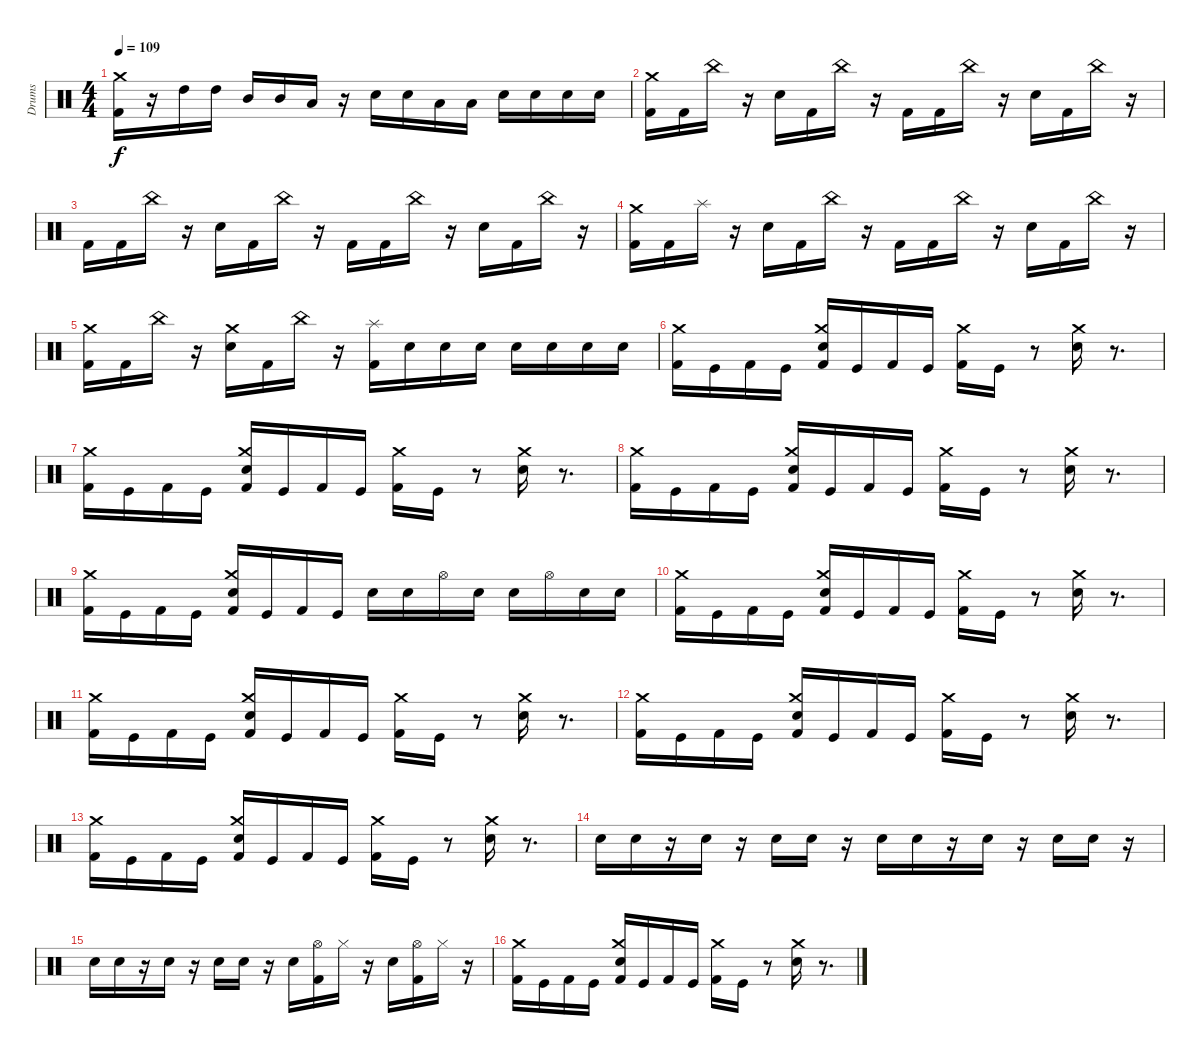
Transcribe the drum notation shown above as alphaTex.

\track ("Drums" "Drums") {instrument percussion}
\staff {score}
\articulation defaults
\ts (4 4)
\tempo 109
\clef neutral
\ks c
("Kick (hit) 2" "Crash medium (hit)").16{dy f} r.16 "High Tom (hit)".16 "High Tom (hit)".16 "Mid Tom (hit)".16 "Mid Tom (hit)".16 "Low Tom (hit)".16 r.16 "Electric Snare (hit)".16 "Electric Snare (hit)".16 "Low Tom (hit)".16 "Low Tom (hit)".16 "Electric Snare (hit)".16 "Electric Snare (hit)".16 "Electric Snare (hit)".16 "Electric Snare (hit)".16 |
("Crash medium (hit)" "Kick (hit) 2").16 "Kick (hit) 2".16 "China (hit)".16 r.16 "Electric Snare (hit)".16 "Kick (hit) 2".16 "China (hit)".16 r.16 "Kick (hit) 2".16 "Kick (hit) 2".16 "China (hit)".16 r.16 "Electric Snare (hit)".16 "Kick (hit) 2".16 "China (hit)".16 r.16 |
"Kick (hit) 2".16 "Kick (hit) 2".16 "China (hit)".16 r.16 "Electric Snare (hit)".16 "Kick (hit) 2".16 "China (hit)".16 r.16 "Kick (hit) 2".16 "Kick (hit) 2".16 "China (hit)".16 r.16 "Electric Snare (hit)".16 "Kick (hit) 2".16 "China (hit)".16 r.16 |
("Crash medium (hit)" "Kick (hit) 2").16 "Kick (hit) 2".16 "Splash (hit)".16 r.16 "Electric Snare (hit)".16 "Kick (hit) 2".16 "China (hit)".16 r.16 "Kick (hit) 2".16 "Kick (hit) 2".16 "China (hit)".16 r.16 "Electric Snare (hit)".16 "Kick (hit) 2".16 "China (hit)".16 r.16 |
("Crash medium (hit)" "Kick (hit) 2").16 "Kick (hit) 2".16 "China (hit)".16 r.16 ("Crash medium (hit)" "Electric Snare (hit)").16 "Kick (hit) 2".16 "China (hit)".16 r.16 ("Splash (hit)" "Kick (hit) 2").16 "Electric Snare (hit)".16 "Electric Snare (hit)".16 "Electric Snare (hit)".16 "Electric Snare (hit)".16 "Electric Snare (hit)".16 "Electric Snare (hit)".16 "Electric Snare (hit)".16 |
("Crash medium (hit)" "Kick (hit) 2").16 "Kick (hit)".16 "Kick (hit) 2".16 "Kick (hit)".16 ("Crash medium (hit)" "Kick (hit) 2" "Electric Snare (hit)").16 "Kick (hit)".16 "Kick (hit) 2".16 "Kick (hit)".16 ("Crash medium (hit)" "Kick (hit) 2").16 "Kick (hit)".16 r.8 ("Crash medium (hit)" "Electric Snare (hit)").16 r.8{d} |
("Crash medium (hit)" "Kick (hit) 2").16 "Kick (hit)".16 "Kick (hit) 2".16 "Kick (hit)".16 ("Crash medium (hit)" "Kick (hit) 2" "Electric Snare (hit)").16 "Kick (hit)".16 "Kick (hit) 2".16 "Kick (hit)".16 ("Crash medium (hit)" "Kick (hit) 2").16 "Kick (hit)".16 r.8 ("Crash medium (hit)" "Electric Snare (hit)").16 r.8{d} |
("Crash medium (hit)" "Kick (hit) 2").16 "Kick (hit)".16 "Kick (hit) 2".16 "Kick (hit)".16 ("Crash medium (hit)" "Kick (hit) 2" "Electric Snare (hit)").16 "Kick (hit)".16 "Kick (hit) 2".16 "Kick (hit)".16 ("Crash medium (hit)" "Kick (hit) 2").16 "Kick (hit)".16 r.8 ("Crash medium (hit)" "Electric Snare (hit)").16 r.8{d} |
("Crash medium (hit)" "Kick (hit) 2").16 "Kick (hit)".16 "Kick (hit) 2".16 "Kick (hit)".16 ("Crash medium (hit)" "Kick (hit) 2" "Electric Snare (hit)").16 "Kick (hit)".16 "Kick (hit) 2".16 "Kick (hit)".16 "Electric Snare (hit)".16 "Electric Snare (hit)".16 "Hi-Hat (open)".16 "Electric Snare (hit)".16 "Electric Snare (hit)".16 "Hi-Hat (open)".16 "Electric Snare (hit)".16 "Electric Snare (hit)".16 |
("Crash medium (hit)" "Kick (hit) 2").16 "Kick (hit)".16 "Kick (hit) 2".16 "Kick (hit)".16 ("Crash medium (hit)" "Kick (hit) 2" "Electric Snare (hit)").16 "Kick (hit)".16 "Kick (hit) 2".16 "Kick (hit)".16 ("Crash medium (hit)" "Kick (hit) 2").16 "Kick (hit)".16 r.8 ("Crash medium (hit)" "Electric Snare (hit)").16 r.8{d} |
("Crash medium (hit)" "Kick (hit) 2").16 "Kick (hit)".16 "Kick (hit) 2".16 "Kick (hit)".16 ("Crash medium (hit)" "Kick (hit) 2" "Electric Snare (hit)").16 "Kick (hit)".16 "Kick (hit) 2".16 "Kick (hit)".16 ("Crash medium (hit)" "Kick (hit) 2").16 "Kick (hit)".16 r.8 ("Crash medium (hit)" "Electric Snare (hit)").16 r.8{d} |
("Crash medium (hit)" "Kick (hit) 2").16 "Kick (hit)".16 "Kick (hit) 2".16 "Kick (hit)".16 ("Crash medium (hit)" "Kick (hit) 2" "Electric Snare (hit)").16 "Kick (hit)".16 "Kick (hit) 2".16 "Kick (hit)".16 ("Crash medium (hit)" "Kick (hit) 2").16 "Kick (hit)".16 r.8 ("Crash medium (hit)" "Electric Snare (hit)").16 r.8{d} |
("Crash medium (hit)" "Kick (hit) 2").16 "Kick (hit)".16 "Kick (hit) 2".16 "Kick (hit)".16 ("Crash medium (hit)" "Kick (hit) 2" "Electric Snare (hit)").16 "Kick (hit)".16 "Kick (hit) 2".16 "Kick (hit)".16 ("Crash medium (hit)" "Kick (hit) 2").16 "Kick (hit)".16 r.8 ("Crash medium (hit)" "Electric Snare (hit)").16 r.8{d} |
"Electric Snare (hit)".16 "Electric Snare (hit)".16 r.16 "Electric Snare (hit)".16 r.16 "Electric Snare (hit)".16 "Electric Snare (hit)".16 r.16 "Electric Snare (hit)".16 "Electric Snare (hit)".16 r.16 "Electric Snare (hit)".16 r.16 "Electric Snare (hit)".16 "Electric Snare (hit)".16 r.16 |
"Electric Snare (hit)".16 "Electric Snare (hit)".16 r.16 "Electric Snare (hit)".16 r.16 "Electric Snare (hit)".16 "Electric Snare (hit)".16 r.16 "Electric Snare (hit)".16 ("Hi-Hat (open)" "Kick (hit) 2").16 "Hi-Hat (closed)".16 r.16 "Electric Snare (hit)".16 ("Hi-Hat (open)" "Kick (hit) 2").16 "Hi-Hat (closed)".16 r.16 |
("Crash medium (hit)" "Kick (hit) 2").16 "Kick (hit)".16 "Kick (hit) 2".16 "Kick (hit)".16 ("Crash medium (hit)" "Kick (hit) 2" "Electric Snare (hit)").16 "Kick (hit)".16 "Kick (hit) 2".16 "Kick (hit)".16 ("Crash medium (hit)" "Kick (hit) 2").16 "Kick (hit)".16 r.8 ("Crash medium (hit)" "Electric Snare (hit)").16 r.8{d}
